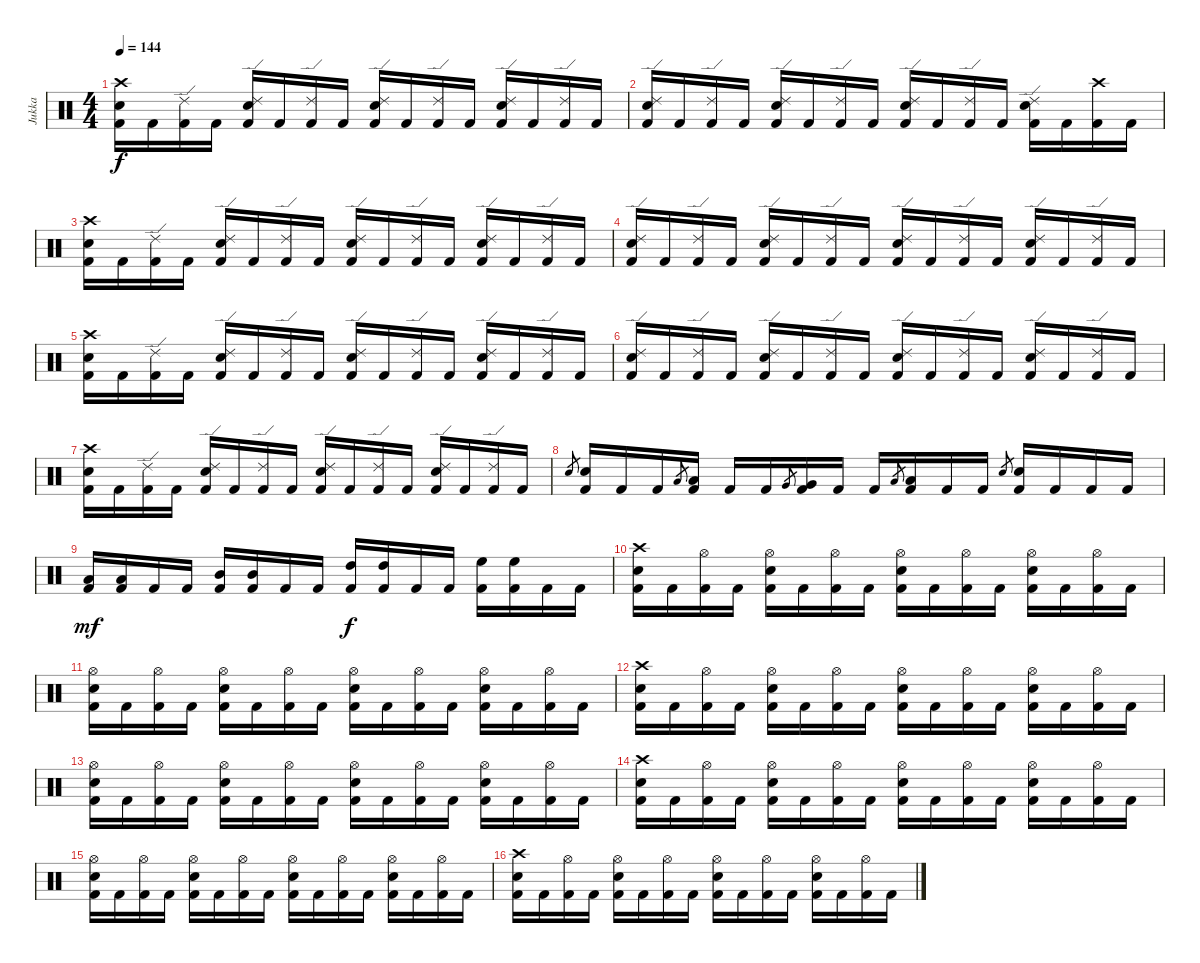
\track ("Jukka" "Jukka") {instrument percussion}
\staff {score}
\articulation defaults
\ts (4 4)
\tempo 144
\clef neutral
\ks c
("Crash high (hit)" "Electric Snare (hit)" "Kick (hit) 2").16{dy f} "Kick (hit) 2".16 ("Ride (edge) 2" "Kick (hit) 2").16 "Kick (hit) 2".16 ("Ride (edge) 2" "Electric Snare (hit)" "Kick (hit) 2").16 "Kick (hit) 2".16 ("Ride (edge) 2" "Kick (hit) 2").16 "Kick (hit) 2".16 ("Ride (edge) 2" "Electric Snare (hit)" "Kick (hit) 2").16 "Kick (hit) 2".16 ("Ride (edge) 2" "Kick (hit) 2").16 "Kick (hit) 2".16 ("Ride (edge) 2" "Electric Snare (hit)" "Kick (hit) 2").16 "Kick (hit) 2".16 ("Ride (edge) 2" "Kick (hit) 2").16 "Kick (hit) 2".16 |
("Ride (edge) 2" "Electric Snare (hit)" "Kick (hit) 2").16 "Kick (hit) 2".16 ("Ride (edge) 2" "Kick (hit) 2").16 "Kick (hit) 2".16 ("Ride (edge) 2" "Electric Snare (hit)" "Kick (hit) 2").16 "Kick (hit) 2".16 ("Ride (edge) 2" "Kick (hit) 2").16 "Kick (hit) 2".16 ("Ride (edge) 2" "Electric Snare (hit)" "Kick (hit) 2").16 "Kick (hit) 2".16 ("Ride (edge) 2" "Kick (hit) 2").16 "Kick (hit) 2".16 ("Ride (edge) 2" "Electric Snare (hit)" "Kick (hit) 2").16 "Kick (hit) 2".16 ("Crash high (hit)" "Kick (hit) 2").16 "Kick (hit) 2".16 |
("Crash high (hit)" "Electric Snare (hit)" "Kick (hit) 2").16 "Kick (hit) 2".16 ("Ride (edge) 2" "Kick (hit) 2").16 "Kick (hit) 2".16 ("Ride (edge) 2" "Electric Snare (hit)" "Kick (hit) 2").16 "Kick (hit) 2".16 ("Ride (edge) 2" "Kick (hit) 2").16 "Kick (hit) 2".16 ("Ride (edge) 2" "Electric Snare (hit)" "Kick (hit) 2").16 "Kick (hit) 2".16 ("Ride (edge) 2" "Kick (hit) 2").16 "Kick (hit) 2".16 ("Ride (edge) 2" "Electric Snare (hit)" "Kick (hit) 2").16 "Kick (hit) 2".16 ("Ride (edge) 2" "Kick (hit) 2").16 "Kick (hit) 2".16 |
("Ride (edge) 2" "Electric Snare (hit)" "Kick (hit) 2").16 "Kick (hit) 2".16 ("Ride (edge) 2" "Kick (hit) 2").16 "Kick (hit) 2".16 ("Ride (edge) 2" "Electric Snare (hit)" "Kick (hit) 2").16 "Kick (hit) 2".16 ("Ride (edge) 2" "Kick (hit) 2").16 "Kick (hit) 2".16 ("Ride (edge) 2" "Electric Snare (hit)" "Kick (hit) 2").16 "Kick (hit) 2".16 ("Ride (edge) 2" "Kick (hit) 2").16 "Kick (hit) 2".16 ("Ride (edge) 2" "Electric Snare (hit)" "Kick (hit) 2").16 "Kick (hit) 2".16 ("Ride (edge) 2" "Kick (hit) 2").16 "Kick (hit) 2".16 |
("Crash high (hit)" "Electric Snare (hit)" "Kick (hit) 2").16 "Kick (hit) 2".16 ("Ride (edge) 2" "Kick (hit) 2").16 "Kick (hit) 2".16 ("Ride (edge) 2" "Electric Snare (hit)" "Kick (hit) 2").16 "Kick (hit) 2".16 ("Ride (edge) 2" "Kick (hit) 2").16 "Kick (hit) 2".16 ("Ride (edge) 2" "Electric Snare (hit)" "Kick (hit) 2").16 "Kick (hit) 2".16 ("Ride (edge) 2" "Kick (hit) 2").16 "Kick (hit) 2".16 ("Ride (edge) 2" "Electric Snare (hit)" "Kick (hit) 2").16 "Kick (hit) 2".16 ("Ride (edge) 2" "Kick (hit) 2").16 "Kick (hit) 2".16 |
("Ride (edge) 2" "Electric Snare (hit)" "Kick (hit) 2").16 "Kick (hit) 2".16 ("Ride (edge) 2" "Kick (hit) 2").16 "Kick (hit) 2".16 ("Ride (edge) 2" "Electric Snare (hit)" "Kick (hit) 2").16 "Kick (hit) 2".16 ("Ride (edge) 2" "Kick (hit) 2").16 "Kick (hit) 2".16 ("Ride (edge) 2" "Electric Snare (hit)" "Kick (hit) 2").16 "Kick (hit) 2".16 ("Ride (edge) 2" "Kick (hit) 2").16 "Kick (hit) 2".16 ("Ride (edge) 2" "Electric Snare (hit)" "Kick (hit) 2").16 "Kick (hit) 2".16 ("Ride (edge) 2" "Kick (hit) 2").16 "Kick (hit) 2".16 |
("Crash high (hit)" "Electric Snare (hit)" "Kick (hit) 2").16 "Kick (hit) 2".16 ("Ride (edge) 2" "Kick (hit) 2").16 "Kick (hit) 2".16 ("Ride (edge) 2" "Electric Snare (hit)" "Kick (hit) 2").16 "Kick (hit) 2".16 ("Ride (edge) 2" "Kick (hit) 2").16 "Kick (hit) 2".16 ("Ride (edge) 2" "Electric Snare (hit)" "Kick (hit) 2").16 "Kick (hit) 2".16 ("Ride (edge) 2" "Kick (hit) 2").16 "Kick (hit) 2".16 ("Ride (edge) 2" "Electric Snare (hit)" "Kick (hit) 2").16 "Kick (hit) 2".16 ("Ride (edge) 2" "Kick (hit) 2").16 "Kick (hit) 2".16 |
"Electric Snare (hit)".8{gr} ("Electric Snare (hit)" "Kick (hit) 2").16 "Kick (hit) 2".16 "Kick (hit) 2".16 "Low Tom (hit)".8{gr} ("Low Tom (hit)" "Kick (hit) 2").16 "Kick (hit) 2".16 "Kick (hit) 2".16 "Very Low Tom (hit)".8{gr} ("Very Low Tom (hit)" "Kick (hit) 2").16 "Kick (hit) 2".16 "Kick (hit) 2".16 "Low Floor Tom (hit)".8{gr} ("Low Floor Tom (hit)" "Kick (hit) 2").16 "Kick (hit) 2".16 "Kick (hit) 2".16 "Electric Snare (hit)".8{gr} ("Electric Snare (hit)" "Kick (hit) 2").16 "Kick (hit) 2".16 "Kick (hit) 2".16 "Kick (hit) 2".16 |
("Low Tom (hit)" "Kick (hit) 2").16{dy mf} ("Low Tom (hit)" "Kick (hit) 2").16 "Kick (hit) 2".16 "Kick (hit) 2".16 ("Mid Tom (hit)" "Kick (hit) 2").16 ("Mid Tom (hit)" "Kick (hit) 2").16 "Kick (hit) 2".16 "Kick (hit) 2".16 ("High Tom (hit)" "Kick (hit) 2").16{dy f} ("High Tom (hit)" "Kick (hit) 2").16 "Kick (hit) 2".16 "Kick (hit) 2".16 ("High Floor Tom (hit)" "Kick (hit) 2").16 ("High Floor Tom (hit)" "Kick (hit) 2").16 "Kick (hit) 2".16 "Kick (hit) 2".16 |
("Crash high (hit)" "Electric Snare (hit)" "Kick (hit) 2").16 "Kick (hit) 2".16 ("Hi-Hat (open)" "Kick (hit) 2").16 "Kick (hit) 2".16 ("Hi-Hat (open)" "Electric Snare (hit)" "Kick (hit) 2").16 "Kick (hit) 2".16 ("Hi-Hat (open)" "Kick (hit) 2").16 "Kick (hit) 2".16 ("Hi-Hat (open)" "Electric Snare (hit)" "Kick (hit) 2").16 "Kick (hit) 2".16 ("Hi-Hat (open)" "Kick (hit) 2").16 "Kick (hit) 2".16 ("Hi-Hat (open)" "Electric Snare (hit)" "Kick (hit) 2").16 "Kick (hit) 2".16 ("Hi-Hat (open)" "Kick (hit) 2").16 "Kick (hit) 2".16 |
("Hi-Hat (open)" "Electric Snare (hit)" "Kick (hit) 2").16 "Kick (hit) 2".16 ("Hi-Hat (open)" "Kick (hit) 2").16 "Kick (hit) 2".16 ("Hi-Hat (open)" "Electric Snare (hit)" "Kick (hit) 2").16 "Kick (hit) 2".16 ("Hi-Hat (open)" "Kick (hit) 2").16 "Kick (hit) 2".16 ("Hi-Hat (open)" "Electric Snare (hit)" "Kick (hit) 2").16 "Kick (hit) 2".16 ("Hi-Hat (open)" "Kick (hit) 2").16 "Kick (hit) 2".16 ("Hi-Hat (open)" "Electric Snare (hit)" "Kick (hit) 2").16 "Kick (hit) 2".16 ("Hi-Hat (open)" "Kick (hit) 2").16 "Kick (hit) 2".16 |
("Crash high (hit)" "Electric Snare (hit)" "Kick (hit) 2").16 "Kick (hit) 2".16 ("Hi-Hat (open)" "Kick (hit) 2").16 "Kick (hit) 2".16 ("Hi-Hat (open)" "Electric Snare (hit)" "Kick (hit) 2").16 "Kick (hit) 2".16 ("Hi-Hat (open)" "Kick (hit) 2").16 "Kick (hit) 2".16 ("Hi-Hat (open)" "Electric Snare (hit)" "Kick (hit) 2").16 "Kick (hit) 2".16 ("Hi-Hat (open)" "Kick (hit) 2").16 "Kick (hit) 2".16 ("Hi-Hat (open)" "Electric Snare (hit)" "Kick (hit) 2").16 "Kick (hit) 2".16 ("Hi-Hat (open)" "Kick (hit) 2").16 "Kick (hit) 2".16 |
("Hi-Hat (open)" "Electric Snare (hit)" "Kick (hit) 2").16 "Kick (hit) 2".16 ("Hi-Hat (open)" "Kick (hit) 2").16 "Kick (hit) 2".16 ("Hi-Hat (open)" "Electric Snare (hit)" "Kick (hit) 2").16 "Kick (hit) 2".16 ("Hi-Hat (open)" "Kick (hit) 2").16 "Kick (hit) 2".16 ("Hi-Hat (open)" "Electric Snare (hit)" "Kick (hit) 2").16 "Kick (hit) 2".16 ("Hi-Hat (open)" "Kick (hit) 2").16 "Kick (hit) 2".16 ("Hi-Hat (open)" "Electric Snare (hit)" "Kick (hit) 2").16 "Kick (hit) 2".16 ("Hi-Hat (open)" "Kick (hit) 2").16 "Kick (hit) 2".16 |
("Crash high (hit)" "Electric Snare (hit)" "Kick (hit) 2").16 "Kick (hit) 2".16 ("Hi-Hat (open)" "Kick (hit) 2").16 "Kick (hit) 2".16 ("Hi-Hat (open)" "Electric Snare (hit)" "Kick (hit) 2").16 "Kick (hit) 2".16 ("Hi-Hat (open)" "Kick (hit) 2").16 "Kick (hit) 2".16 ("Hi-Hat (open)" "Electric Snare (hit)" "Kick (hit) 2").16 "Kick (hit) 2".16 ("Hi-Hat (open)" "Kick (hit) 2").16 "Kick (hit) 2".16 ("Hi-Hat (open)" "Electric Snare (hit)" "Kick (hit) 2").16 "Kick (hit) 2".16 ("Hi-Hat (open)" "Kick (hit) 2").16 "Kick (hit) 2".16 |
("Hi-Hat (open)" "Electric Snare (hit)" "Kick (hit) 2").16 "Kick (hit) 2".16 ("Hi-Hat (open)" "Kick (hit) 2").16 "Kick (hit) 2".16 ("Hi-Hat (open)" "Electric Snare (hit)" "Kick (hit) 2").16 "Kick (hit) 2".16 ("Hi-Hat (open)" "Kick (hit) 2").16 "Kick (hit) 2".16 ("Hi-Hat (open)" "Electric Snare (hit)" "Kick (hit) 2").16 "Kick (hit) 2".16 ("Hi-Hat (open)" "Kick (hit) 2").16 "Kick (hit) 2".16 ("Hi-Hat (open)" "Electric Snare (hit)" "Kick (hit) 2").16 "Kick (hit) 2".16 ("Hi-Hat (open)" "Kick (hit) 2").16 "Kick (hit) 2".16 |
("Crash high (hit)" "Electric Snare (hit)" "Kick (hit) 2").16 "Kick (hit) 2".16 ("Hi-Hat (open)" "Kick (hit) 2").16 "Kick (hit) 2".16 ("Hi-Hat (open)" "Electric Snare (hit)" "Kick (hit) 2").16 "Kick (hit) 2".16 ("Hi-Hat (open)" "Kick (hit) 2").16 "Kick (hit) 2".16 ("Hi-Hat (open)" "Electric Snare (hit)" "Kick (hit) 2").16 "Kick (hit) 2".16 ("Hi-Hat (open)" "Kick (hit) 2").16 "Kick (hit) 2".16 ("Hi-Hat (open)" "Electric Snare (hit)" "Kick (hit) 2").16 "Kick (hit) 2".16 ("Hi-Hat (open)" "Kick (hit) 2").16 "Kick (hit) 2".16
